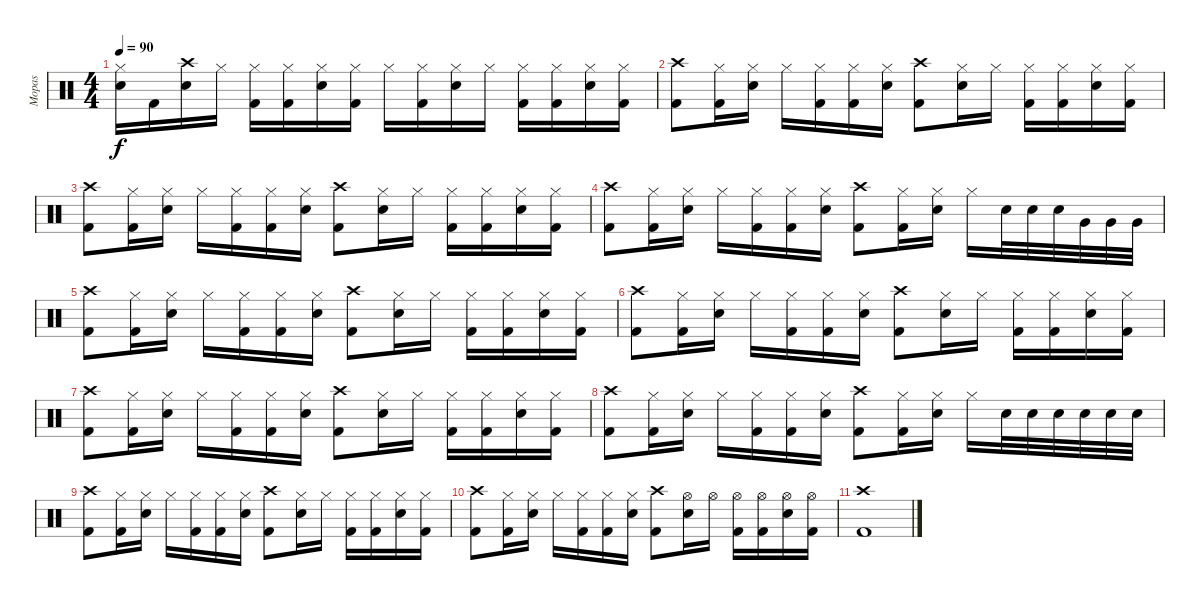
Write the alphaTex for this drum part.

\track ("Mopas" "Mopas") {instrument percussion}
\staff {score}
\articulation defaults
\ts (4 4)
\tempo 90
\clef neutral
\ks c
("Hi-Hat (closed)" "Snare (hit) 2").16{dy f} "Kick (hit) 2".16 ("Crash high (hit)" "Snare (hit) 2").16 "Hi-Hat (closed)".16 ("Hi-Hat (closed)" "Kick (hit) 2").16 ("Hi-Hat (closed)" "Kick (hit) 2").16 ("Hi-Hat (closed)" "Snare (hit) 2").16 ("Hi-Hat (closed)" "Kick (hit) 2").16 "Hi-Hat (closed)".16 ("Hi-Hat (closed)" "Kick (hit) 2").16 ("Hi-Hat (closed)" "Snare (hit) 2").16 "Hi-Hat (closed)".16 ("Hi-Hat (closed)" "Kick (hit) 2").16 ("Hi-Hat (closed)" "Kick (hit) 2").16 ("Hi-Hat (closed)" "Snare (hit) 2").16 ("Hi-Hat (closed)" "Kick (hit) 2").16 |
("Crash high (hit)" "Kick (hit) 2").8 ("Hi-Hat (closed)" "Kick (hit) 2").16 ("Hi-Hat (closed)" "Snare (hit) 2").16 "Hi-Hat (closed)".16 ("Hi-Hat (closed)" "Kick (hit) 2").16 ("Hi-Hat (closed)" "Kick (hit) 2").16 ("Hi-Hat (closed)" "Snare (hit) 2").16 ("Crash high (hit)" "Kick (hit) 2").8 ("Hi-Hat (closed)" "Snare (hit) 2").16 "Hi-Hat (closed)".16 ("Hi-Hat (closed)" "Kick (hit) 2").16 ("Hi-Hat (closed)" "Kick (hit) 2").16 ("Hi-Hat (closed)" "Snare (hit) 2").16 ("Hi-Hat (closed)" "Kick (hit) 2").16 |
("Crash high (hit)" "Kick (hit) 2").8 ("Hi-Hat (closed)" "Kick (hit) 2").16 ("Hi-Hat (closed)" "Snare (hit) 2").16 "Hi-Hat (closed)".16 ("Hi-Hat (closed)" "Kick (hit) 2").16 ("Hi-Hat (closed)" "Kick (hit) 2").16 ("Hi-Hat (closed)" "Snare (hit) 2").16 ("Crash high (hit)" "Kick (hit) 2").8 ("Hi-Hat (closed)" "Snare (hit) 2").16 "Hi-Hat (closed)".16 ("Hi-Hat (closed)" "Kick (hit) 2").16 ("Hi-Hat (closed)" "Kick (hit) 2").16 ("Hi-Hat (closed)" "Snare (hit) 2").16 ("Hi-Hat (closed)" "Kick (hit) 2").16 |
("Crash high (hit)" "Kick (hit) 2").8 ("Hi-Hat (closed)" "Kick (hit) 2").16 ("Hi-Hat (closed)" "Snare (hit) 2").16 "Hi-Hat (closed)".16 ("Hi-Hat (closed)" "Kick (hit) 2").16 ("Hi-Hat (closed)" "Kick (hit) 2").16 ("Hi-Hat (closed)" "Snare (hit) 2").16 ("Crash high (hit)" "Kick (hit) 2").8 ("Hi-Hat (closed)" "Kick (hit) 2").16 ("Hi-Hat (closed)" "Snare (hit) 2").16 "Hi-Hat (closed)".16 "Snare (hit) 2".32 "Snare (hit) 2".32 "Snare (hit) 2".32 "Very Low Tom (hit)".32 "Very Low Tom (hit)".32 "Very Low Tom (hit)".32 |
("Crash high (hit)" "Kick (hit) 2").8 ("Hi-Hat (closed)" "Kick (hit) 2").16 ("Hi-Hat (closed)" "Snare (hit) 2").16 "Hi-Hat (closed)".16 ("Hi-Hat (closed)" "Kick (hit) 2").16 ("Hi-Hat (closed)" "Kick (hit) 2").16 ("Hi-Hat (closed)" "Snare (hit) 2").16 ("Crash high (hit)" "Kick (hit) 2").8 ("Hi-Hat (closed)" "Snare (hit) 2").16 "Hi-Hat (closed)".16 ("Hi-Hat (closed)" "Kick (hit) 2").16 ("Hi-Hat (closed)" "Kick (hit) 2").16 ("Hi-Hat (closed)" "Snare (hit) 2").16 ("Hi-Hat (closed)" "Kick (hit) 2").16 |
("Crash high (hit)" "Kick (hit) 2").8 ("Hi-Hat (closed)" "Kick (hit) 2").16 ("Hi-Hat (closed)" "Snare (hit) 2").16 "Hi-Hat (closed)".16 ("Hi-Hat (closed)" "Kick (hit) 2").16 ("Hi-Hat (closed)" "Kick (hit) 2").16 ("Hi-Hat (closed)" "Snare (hit) 2").16 ("Crash high (hit)" "Kick (hit) 2").8 ("Hi-Hat (closed)" "Snare (hit) 2").16 "Hi-Hat (closed)".16 ("Hi-Hat (closed)" "Kick (hit) 2").16 ("Hi-Hat (closed)" "Kick (hit) 2").16 ("Hi-Hat (closed)" "Snare (hit) 2").16 ("Hi-Hat (closed)" "Kick (hit) 2").16 |
("Crash high (hit)" "Kick (hit) 2").8 ("Hi-Hat (closed)" "Kick (hit) 2").16 ("Hi-Hat (closed)" "Snare (hit) 2").16 "Hi-Hat (closed)".16 ("Hi-Hat (closed)" "Kick (hit) 2").16 ("Hi-Hat (closed)" "Kick (hit) 2").16 ("Hi-Hat (closed)" "Snare (hit) 2").16 ("Crash high (hit)" "Kick (hit) 2").8 ("Hi-Hat (closed)" "Snare (hit) 2").16 "Hi-Hat (closed)".16 ("Hi-Hat (closed)" "Kick (hit) 2").16 ("Hi-Hat (closed)" "Kick (hit) 2").16 ("Hi-Hat (closed)" "Snare (hit) 2").16 ("Hi-Hat (closed)" "Kick (hit) 2").16 |
("Crash high (hit)" "Kick (hit) 2").8 ("Hi-Hat (closed)" "Kick (hit) 2").16 ("Hi-Hat (closed)" "Snare (hit) 2").16 "Hi-Hat (closed)".16 ("Hi-Hat (closed)" "Kick (hit) 2").16 ("Hi-Hat (closed)" "Kick (hit) 2").16 ("Hi-Hat (closed)" "Snare (hit) 2").16 ("Crash high (hit)" "Kick (hit) 2").8 ("Hi-Hat (closed)" "Kick (hit) 2").16 ("Hi-Hat (closed)" "Snare (hit) 2").16 "Hi-Hat (closed)".16 "Snare (hit) 2".32 "Snare (hit) 2".32 "Snare (hit) 2".32 "Snare (hit) 2".32 "Snare (hit) 2".32 "Snare (hit) 2".32 |
("Crash high (hit)" "Kick (hit) 2").8 ("Hi-Hat (closed)" "Kick (hit) 2").16 ("Hi-Hat (closed)" "Snare (hit) 2").16 "Hi-Hat (closed)".16 ("Hi-Hat (closed)" "Kick (hit) 2").16 ("Hi-Hat (closed)" "Kick (hit) 2").16 ("Hi-Hat (closed)" "Snare (hit) 2").16 ("Crash high (hit)" "Kick (hit) 2").8 ("Hi-Hat (closed)" "Snare (hit) 2").16 "Hi-Hat (closed)".16 ("Hi-Hat (closed)" "Kick (hit) 2").16 ("Hi-Hat (closed)" "Kick (hit) 2").16 ("Hi-Hat (closed)" "Snare (hit) 2").16 ("Hi-Hat (closed)" "Kick (hit) 2").16 |
("Crash high (hit)" "Kick (hit) 2").8 ("Hi-Hat (closed)" "Kick (hit) 2").16 ("Hi-Hat (closed)" "Snare (hit) 2").16 "Hi-Hat (closed)".16 ("Hi-Hat (closed)" "Kick (hit) 2").16 ("Hi-Hat (closed)" "Kick (hit) 2").16 ("Hi-Hat (closed)" "Snare (hit) 2").16 ("Crash high (hit)" "Kick (hit) 2").8 ("Hi-Hat (open)" "Snare (hit) 2").16 "Hi-Hat (open)".16 ("Hi-Hat (open)" "Kick (hit) 2").16 ("Hi-Hat (open)" "Kick (hit) 2").16 ("Hi-Hat (open)" "Snare (hit) 2").16 ("Hi-Hat (open)" "Kick (hit) 2").16 |
("Crash high (hit)" "Kick (hit) 2").1
